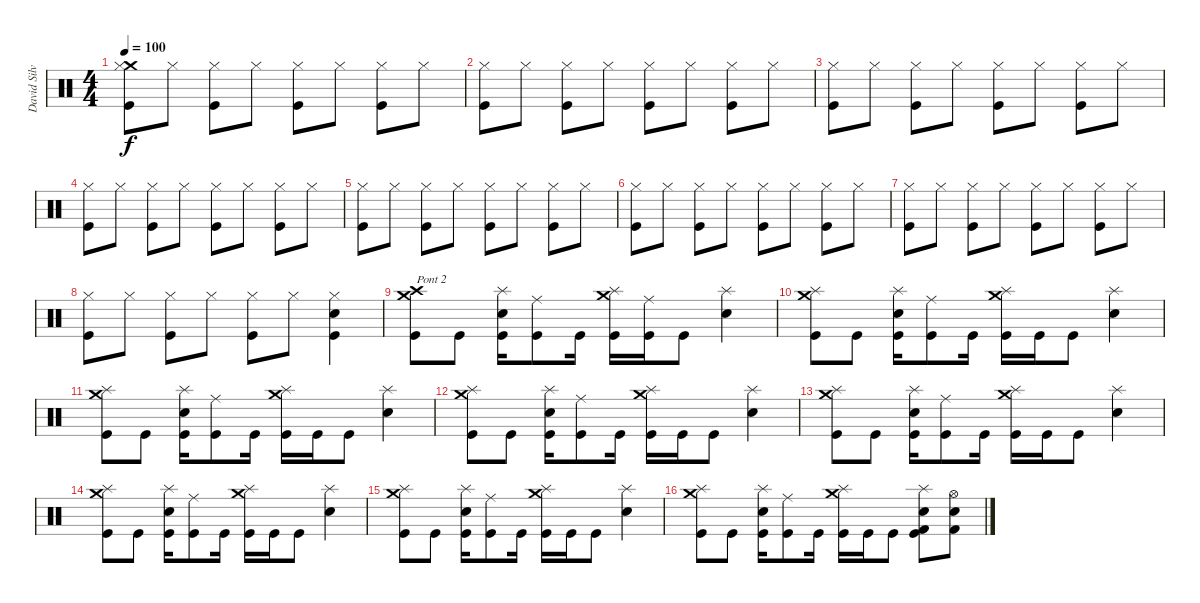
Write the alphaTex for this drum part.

\track ("David Silviera" "David Silv") {instrument percussion}
\staff {score}
\articulation defaults
\ts (4 4)
\tempo 100
\clef neutral
\ks c
("Crash medium (hit)" "Hi-Hat (closed)" "Kick (hit)").8{dy f} "Hi-Hat (closed)".8 ("Hi-Hat (closed)" "Kick (hit)").8 "Hi-Hat (closed)".8 ("Hi-Hat (closed)" "Kick (hit)").8 "Hi-Hat (closed)".8 ("Hi-Hat (closed)" "Kick (hit)").8 "Hi-Hat (closed)".8 |
("Hi-Hat (closed)" "Kick (hit)").8 "Hi-Hat (closed)".8 ("Hi-Hat (closed)" "Kick (hit)").8 "Hi-Hat (closed)".8 ("Hi-Hat (closed)" "Kick (hit)").8 "Hi-Hat (closed)".8 ("Hi-Hat (closed)" "Kick (hit)").8 "Hi-Hat (closed)".8 |
("Hi-Hat (closed)" "Kick (hit)").8 "Hi-Hat (closed)".8 ("Hi-Hat (closed)" "Kick (hit)").8 "Hi-Hat (closed)".8 ("Hi-Hat (closed)" "Kick (hit)").8 "Hi-Hat (closed)".8 ("Hi-Hat (closed)" "Kick (hit)").8 "Hi-Hat (closed)".8 |
("Hi-Hat (closed)" "Kick (hit)").8 "Hi-Hat (closed)".8 ("Hi-Hat (closed)" "Kick (hit)").8 "Hi-Hat (closed)".8 ("Hi-Hat (closed)" "Kick (hit)").8 "Hi-Hat (closed)".8 ("Hi-Hat (closed)" "Kick (hit)").8 "Hi-Hat (closed)".8 |
("Hi-Hat (closed)" "Kick (hit)").8 "Hi-Hat (closed)".8 ("Hi-Hat (closed)" "Kick (hit)").8 "Hi-Hat (closed)".8 ("Hi-Hat (closed)" "Kick (hit)").8 "Hi-Hat (closed)".8 ("Hi-Hat (closed)" "Kick (hit)").8 "Hi-Hat (closed)".8 |
("Hi-Hat (closed)" "Kick (hit)").8 "Hi-Hat (closed)".8 ("Hi-Hat (closed)" "Kick (hit)").8 "Hi-Hat (closed)".8 ("Hi-Hat (closed)" "Kick (hit)").8 "Hi-Hat (closed)".8 ("Hi-Hat (closed)" "Kick (hit)").8 "Hi-Hat (closed)".8 |
("Hi-Hat (closed)" "Kick (hit)").8 "Hi-Hat (closed)".8 ("Hi-Hat (closed)" "Kick (hit)").8 "Hi-Hat (closed)".8 ("Hi-Hat (closed)" "Kick (hit)").8 "Hi-Hat (closed)".8 ("Hi-Hat (closed)" "Kick (hit)").8 "Hi-Hat (closed)".8 |
("Hi-Hat (closed)" "Kick (hit)").8 "Hi-Hat (closed)".8 ("Hi-Hat (closed)" "Kick (hit)").8 "Hi-Hat (closed)".8 ("Hi-Hat (closed)" "Kick (hit)").8 "Hi-Hat (closed)".8 ("Electric Snare (hit)" "Hi-Hat (closed)" "Kick (hit)").4 |
("Crash medium (hit)" "Crash high (hit)" "Kick (hit)").8{txt "Pont 2"} "Kick (hit)".8 ("Splash (hit)" "Electric Snare (hit)" "Kick (hit)").16 ("Ride (middle)" "Kick (hit)").8 "Kick (hit)".16 ("Crash medium (hit)" "Splash (hit)" "Kick (hit)").16 ("Ride (middle)" "Kick (hit)").16 "Kick (hit)".8 ("Splash (hit)" "Electric Snare (hit)").4 |
("Crash medium (hit)" "Splash (hit)" "Kick (hit)").8 "Kick (hit)".8 ("Splash (hit)" "Electric Snare (hit)" "Kick (hit)").16 ("Ride (middle)" "Kick (hit)").8 "Kick (hit)".16 ("Crash medium (hit)" "Splash (hit)" "Kick (hit)").16 "Kick (hit)".16 "Kick (hit)".8 ("Splash (hit)" "Electric Snare (hit)").4 |
("Crash medium (hit)" "Splash (hit)" "Kick (hit)").8 "Kick (hit)".8 ("Splash (hit)" "Electric Snare (hit)" "Kick (hit)").16 ("Ride (middle)" "Kick (hit)").8 "Kick (hit)".16 ("Crash medium (hit)" "Splash (hit)" "Kick (hit)").16 "Kick (hit)".16 "Kick (hit)".8 ("Splash (hit)" "Electric Snare (hit)").4 |
("Crash medium (hit)" "Splash (hit)" "Kick (hit)").8 "Kick (hit)".8 ("Splash (hit)" "Electric Snare (hit)" "Kick (hit)").16 ("Ride (middle)" "Kick (hit)").8 "Kick (hit)".16 ("Crash medium (hit)" "Splash (hit)" "Kick (hit)").16 "Kick (hit)".16 "Kick (hit)".8 ("Splash (hit)" "Electric Snare (hit)").4 |
("Crash medium (hit)" "Splash (hit)" "Kick (hit)").8 "Kick (hit)".8 ("Splash (hit)" "Electric Snare (hit)" "Kick (hit)").16 ("Ride (middle)" "Kick (hit)").8 "Kick (hit)".16 ("Crash medium (hit)" "Splash (hit)" "Kick (hit)").16 "Kick (hit)".16 "Kick (hit)".8 ("Splash (hit)" "Electric Snare (hit)").4 |
("Crash medium (hit)" "Splash (hit)" "Kick (hit)").8 "Kick (hit)".8 ("Splash (hit)" "Electric Snare (hit)" "Kick (hit)").16 ("Ride (middle)" "Kick (hit)").8 "Kick (hit)".16 ("Crash medium (hit)" "Splash (hit)" "Kick (hit)").16 "Kick (hit)".16 "Kick (hit)".8 ("Splash (hit)" "Electric Snare (hit)").4 |
("Crash medium (hit)" "Splash (hit)" "Kick (hit)").8 "Kick (hit)".8 ("Splash (hit)" "Electric Snare (hit)" "Kick (hit)").16 ("Ride (middle)" "Kick (hit)").8 "Kick (hit)".16 ("Crash medium (hit)" "Splash (hit)" "Kick (hit)").16 "Kick (hit)".16 "Kick (hit)".8 ("Splash (hit)" "Electric Snare (hit)").4 |
("Crash medium (hit)" "Splash (hit)" "Kick (hit)").8 "Kick (hit)".8 ("Splash (hit)" "Electric Snare (hit)" "Kick (hit)").16 ("Ride (middle)" "Kick (hit)").8 "Kick (hit)".16 ("Crash medium (hit)" "Splash (hit)" "Kick (hit)").16 "Kick (hit)".16 "Kick (hit)".8 ("Splash (hit)" "Kick (hit) 2" "Electric Snare (hit)" "Kick (hit)").8 ("Kick (hit) 2" "Electric Snare (hit)" "Hi-Hat (open)").8
